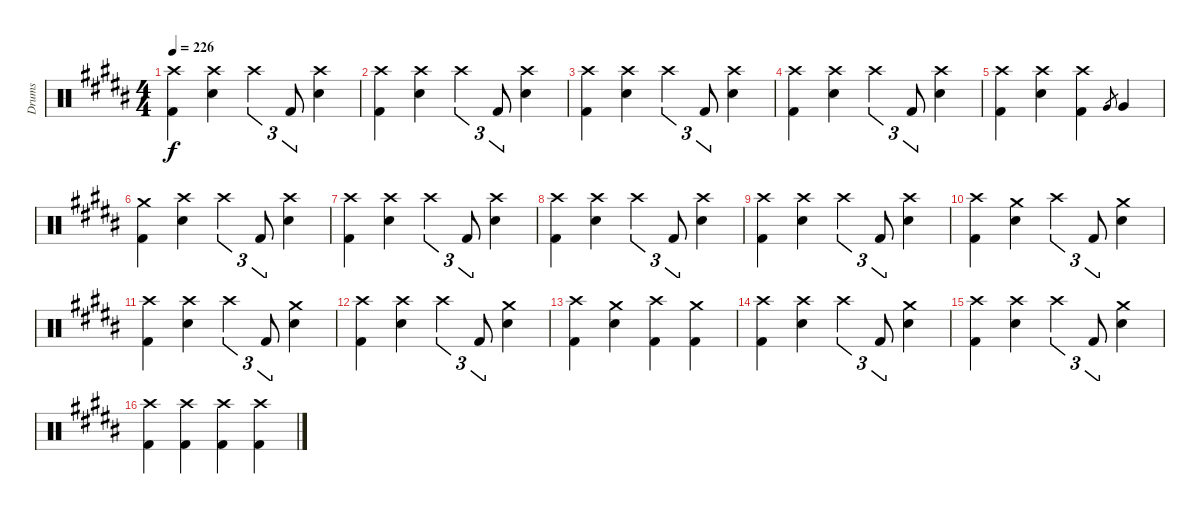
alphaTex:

\track ("Drums" "Drums") {instrument percussion}
\staff {score}
\articulation defaults
\ts (4 4)
\tempo 226
\clef neutral
\ks b
("Crash high (hit)" "Kick (hit) 2").4{dy f} ("Crash high (hit)" "Snare (hit) 2").4 "Crash high (hit)".4{tu (3 2)} "Kick (hit) 2".8{tu (3 2)} ("Crash high (hit)" "Snare (hit) 2").4 |
("Crash high (hit)" "Kick (hit) 2").4 ("Crash high (hit)" "Snare (hit) 2").4 "Crash high (hit)".4{tu (3 2)} "Kick (hit) 2".8{tu (3 2)} ("Crash high (hit)" "Snare (hit) 2").4 |
("Crash high (hit)" "Kick (hit) 2").4 ("Crash high (hit)" "Snare (hit) 2").4 "Crash high (hit)".4{tu (3 2)} "Kick (hit) 2".8{tu (3 2)} ("Crash high (hit)" "Snare (hit) 2").4 |
("Crash high (hit)" "Kick (hit) 2").4 ("Crash high (hit)" "Snare (hit) 2").4 "Crash high (hit)".4{tu (3 2)} "Kick (hit) 2".8{tu (3 2)} ("Crash high (hit)" "Snare (hit) 2").4 |
("Crash high (hit)" "Kick (hit) 2").4 ("Crash high (hit)" "Snare (hit) 2").4 ("Crash high (hit)" "Kick (hit) 2").4 "Very Low Tom (hit)".8{gr} "Very Low Tom (hit)".4 |
("Crash medium (hit)" "Kick (hit) 2").4 ("Crash high (hit)" "Snare (hit) 2").4 "Crash high (hit)".4{tu (3 2)} "Kick (hit) 2".8{tu (3 2)} ("Crash high (hit)" "Snare (hit) 2").4 |
("Crash high (hit)" "Kick (hit) 2").4 ("Crash high (hit)" "Snare (hit) 2").4 "Crash high (hit)".4{tu (3 2)} "Kick (hit) 2".8{tu (3 2)} ("Crash high (hit)" "Snare (hit) 2").4 |
("Crash high (hit)" "Kick (hit) 2").4 ("Crash high (hit)" "Snare (hit) 2").4 "Crash high (hit)".4{tu (3 2)} "Kick (hit) 2".8{tu (3 2)} ("Crash high (hit)" "Snare (hit) 2").4 |
("Crash high (hit)" "Kick (hit) 2").4 ("Crash high (hit)" "Snare (hit) 2").4 "Crash high (hit)".4{tu (3 2)} "Kick (hit) 2".8{tu (3 2)} ("Crash high (hit)" "Snare (hit) 2").4 |
("Crash high (hit)" "Kick (hit) 2").4 ("Crash medium (hit)" "Snare (hit) 2").4 "Crash high (hit)".4{tu (3 2)} "Kick (hit) 2".8{tu (3 2)} ("Crash medium (hit)" "Snare (hit) 2").4 |
("Crash high (hit)" "Kick (hit) 2").4 ("Crash high (hit)" "Snare (hit) 2").4 "Crash high (hit)".4{tu (3 2)} "Kick (hit) 2".8{tu (3 2)} ("Crash medium (hit)" "Snare (hit) 2").4 |
("Crash high (hit)" "Kick (hit) 2").4 ("Crash high (hit)" "Snare (hit) 2").4 "Crash high (hit)".4{tu (3 2)} "Kick (hit) 2".8{tu (3 2)} ("Crash medium (hit)" "Snare (hit) 2").4 |
("Crash high (hit)" "Kick (hit) 2").4 ("Crash medium (hit)" "Snare (hit) 2").4 ("Crash high (hit)" "Kick (hit) 2").4 ("Crash medium (hit)" "Kick (hit) 2").4 |
("Crash high (hit)" "Kick (hit) 2").4 ("Crash high (hit)" "Snare (hit) 2").4 "Crash high (hit)".4{tu (3 2)} "Kick (hit) 2".8{tu (3 2)} ("Crash medium (hit)" "Snare (hit) 2").4 |
("Crash high (hit)" "Kick (hit) 2").4 ("Crash high (hit)" "Snare (hit) 2").4 "Crash high (hit)".4{tu (3 2)} "Kick (hit) 2".8{tu (3 2)} ("Crash medium (hit)" "Snare (hit) 2").4 |
("Crash high (hit)" "Kick (hit) 2").4 ("Crash high (hit)" "Kick (hit) 2").4 ("Crash high (hit)" "Kick (hit) 2").4 ("Crash high (hit)" "Kick (hit) 2").4
